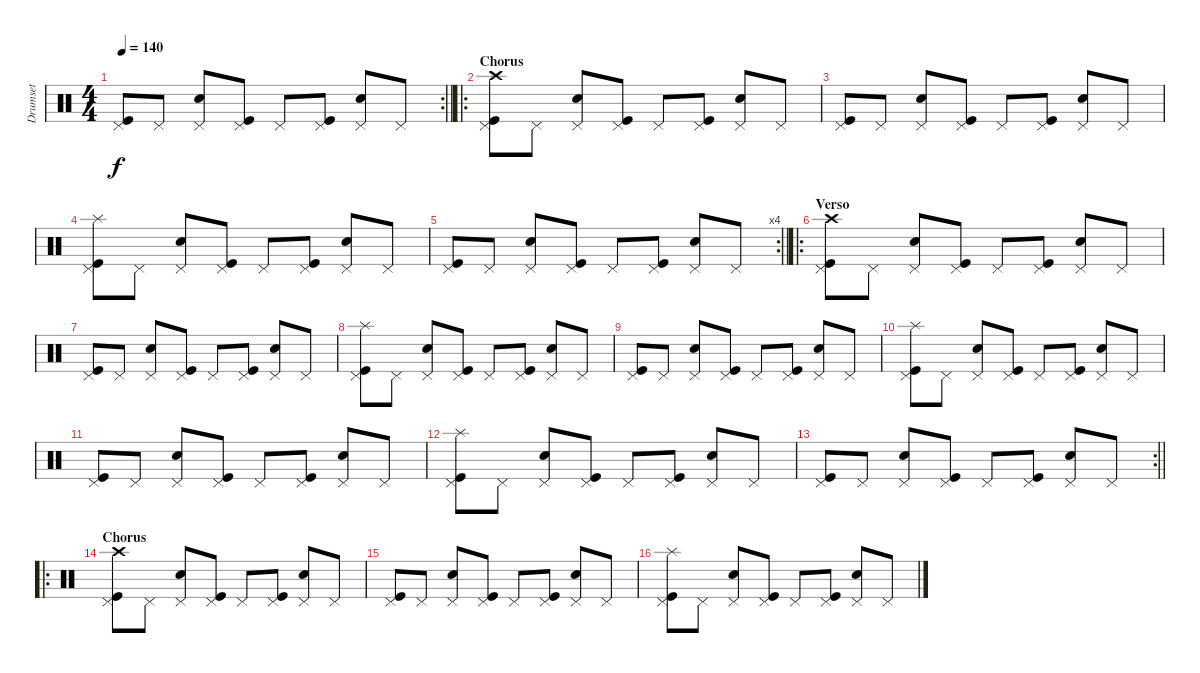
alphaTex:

\track ("Drumset" "Drumset") {instrument percussion}
\staff {score}
\articulation defaults
\rc 2
\ts (4 4)
\tempo 140
\clef neutral
\barLineRight lightlight
\ks c
("Pedal Hi-Hat (hit)" "Kick (hit)").8{dy f} "Pedal Hi-Hat (hit)".8 ("Pedal Hi-Hat (hit)" "Snare (hit) 2").8 ("Pedal Hi-Hat (hit)" "Kick (hit)").8 "Pedal Hi-Hat (hit)".8 ("Pedal Hi-Hat (hit)" "Kick (hit)").8 ("Pedal Hi-Hat (hit)" "Snare (hit) 2").8 "Pedal Hi-Hat (hit)".8 |
\ro
\section ("" "Chorus")
("Pedal Hi-Hat (hit)" "Kick (hit)" "Crash high (hit)").8 "Pedal Hi-Hat (hit)".8 ("Pedal Hi-Hat (hit)" "Snare (hit) 2").8 ("Pedal Hi-Hat (hit)" "Kick (hit)").8 "Pedal Hi-Hat (hit)".8 ("Pedal Hi-Hat (hit)" "Kick (hit)").8 ("Pedal Hi-Hat (hit)" "Snare (hit) 2").8 "Pedal Hi-Hat (hit)".8 |
("Pedal Hi-Hat (hit)" "Kick (hit)").8 "Pedal Hi-Hat (hit)".8 ("Pedal Hi-Hat (hit)" "Snare (hit) 2").8 ("Pedal Hi-Hat (hit)" "Kick (hit)").8 "Pedal Hi-Hat (hit)".8 ("Pedal Hi-Hat (hit)" "Kick (hit)").8 ("Pedal Hi-Hat (hit)" "Snare (hit) 2").8 "Pedal Hi-Hat (hit)".8 |
("Pedal Hi-Hat (hit)" "Kick (hit)" "Splash (hit)").8 "Pedal Hi-Hat (hit)".8 ("Pedal Hi-Hat (hit)" "Snare (hit) 2").8 ("Pedal Hi-Hat (hit)" "Kick (hit)").8 "Pedal Hi-Hat (hit)".8 ("Pedal Hi-Hat (hit)" "Kick (hit)").8 ("Pedal Hi-Hat (hit)" "Snare (hit) 2").8 "Pedal Hi-Hat (hit)".8 |
\rc 4
\barLineRight lightlight
("Pedal Hi-Hat (hit)" "Kick (hit)").8 "Pedal Hi-Hat (hit)".8 ("Pedal Hi-Hat (hit)" "Snare (hit) 2").8 ("Pedal Hi-Hat (hit)" "Kick (hit)").8 "Pedal Hi-Hat (hit)".8 ("Pedal Hi-Hat (hit)" "Kick (hit)").8 ("Pedal Hi-Hat (hit)" "Snare (hit) 2").8 "Pedal Hi-Hat (hit)".8 |
\ro
\section ("" "Verso")
("Pedal Hi-Hat (hit)" "Kick (hit)" "Crash high (hit)").8 "Pedal Hi-Hat (hit)".8 ("Pedal Hi-Hat (hit)" "Snare (hit) 2").8 ("Pedal Hi-Hat (hit)" "Kick (hit)").8 "Pedal Hi-Hat (hit)".8 ("Pedal Hi-Hat (hit)" "Kick (hit)").8 ("Pedal Hi-Hat (hit)" "Snare (hit) 2").8 "Pedal Hi-Hat (hit)".8 |
("Pedal Hi-Hat (hit)" "Kick (hit)").8 "Pedal Hi-Hat (hit)".8 ("Pedal Hi-Hat (hit)" "Snare (hit) 2").8 ("Pedal Hi-Hat (hit)" "Kick (hit)").8 "Pedal Hi-Hat (hit)".8 ("Pedal Hi-Hat (hit)" "Kick (hit)").8 ("Pedal Hi-Hat (hit)" "Snare (hit) 2").8 "Pedal Hi-Hat (hit)".8 |
("Pedal Hi-Hat (hit)" "Kick (hit)" "Splash (hit)").8 "Pedal Hi-Hat (hit)".8 ("Pedal Hi-Hat (hit)" "Snare (hit) 2").8 ("Pedal Hi-Hat (hit)" "Kick (hit)").8 "Pedal Hi-Hat (hit)".8 ("Pedal Hi-Hat (hit)" "Kick (hit)").8 ("Pedal Hi-Hat (hit)" "Snare (hit) 2").8 "Pedal Hi-Hat (hit)".8 |
("Pedal Hi-Hat (hit)" "Kick (hit)").8 "Pedal Hi-Hat (hit)".8 ("Pedal Hi-Hat (hit)" "Snare (hit) 2").8 ("Pedal Hi-Hat (hit)" "Kick (hit)").8 "Pedal Hi-Hat (hit)".8 ("Pedal Hi-Hat (hit)" "Kick (hit)").8 ("Pedal Hi-Hat (hit)" "Snare (hit) 2").8 "Pedal Hi-Hat (hit)".8 |
("Pedal Hi-Hat (hit)" "Kick (hit)" "Splash (hit)").8 "Pedal Hi-Hat (hit)".8 ("Pedal Hi-Hat (hit)" "Snare (hit) 2").8 ("Pedal Hi-Hat (hit)" "Kick (hit)").8 "Pedal Hi-Hat (hit)".8 ("Pedal Hi-Hat (hit)" "Kick (hit)").8 ("Pedal Hi-Hat (hit)" "Snare (hit) 2").8 "Pedal Hi-Hat (hit)".8 |
("Pedal Hi-Hat (hit)" "Kick (hit)").8 "Pedal Hi-Hat (hit)".8 ("Pedal Hi-Hat (hit)" "Snare (hit) 2").8 ("Pedal Hi-Hat (hit)" "Kick (hit)").8 "Pedal Hi-Hat (hit)".8 ("Pedal Hi-Hat (hit)" "Kick (hit)").8 ("Pedal Hi-Hat (hit)" "Snare (hit) 2").8 "Pedal Hi-Hat (hit)".8 |
("Pedal Hi-Hat (hit)" "Kick (hit)" "Splash (hit)").8 "Pedal Hi-Hat (hit)".8 ("Pedal Hi-Hat (hit)" "Snare (hit) 2").8 ("Pedal Hi-Hat (hit)" "Kick (hit)").8 "Pedal Hi-Hat (hit)".8 ("Pedal Hi-Hat (hit)" "Kick (hit)").8 ("Pedal Hi-Hat (hit)" "Snare (hit) 2").8 "Pedal Hi-Hat (hit)".8 |
\rc 2
\barLineRight lightlight
("Pedal Hi-Hat (hit)" "Kick (hit)").8 "Pedal Hi-Hat (hit)".8 ("Pedal Hi-Hat (hit)" "Snare (hit) 2").8 ("Pedal Hi-Hat (hit)" "Kick (hit)").8 "Pedal Hi-Hat (hit)".8 ("Pedal Hi-Hat (hit)" "Kick (hit)").8 ("Pedal Hi-Hat (hit)" "Snare (hit) 2").8 "Pedal Hi-Hat (hit)".8 |
\ro
\section ("" "Chorus")
("Pedal Hi-Hat (hit)" "Kick (hit)" "Crash high (hit)").8 "Pedal Hi-Hat (hit)".8 ("Pedal Hi-Hat (hit)" "Snare (hit) 2").8 ("Pedal Hi-Hat (hit)" "Kick (hit)").8 "Pedal Hi-Hat (hit)".8 ("Pedal Hi-Hat (hit)" "Kick (hit)").8 ("Pedal Hi-Hat (hit)" "Snare (hit) 2").8 "Pedal Hi-Hat (hit)".8 |
("Pedal Hi-Hat (hit)" "Kick (hit)").8 "Pedal Hi-Hat (hit)".8 ("Pedal Hi-Hat (hit)" "Snare (hit) 2").8 ("Pedal Hi-Hat (hit)" "Kick (hit)").8 "Pedal Hi-Hat (hit)".8 ("Pedal Hi-Hat (hit)" "Kick (hit)").8 ("Pedal Hi-Hat (hit)" "Snare (hit) 2").8 "Pedal Hi-Hat (hit)".8 |
("Pedal Hi-Hat (hit)" "Kick (hit)" "Splash (hit)").8 "Pedal Hi-Hat (hit)".8 ("Pedal Hi-Hat (hit)" "Snare (hit) 2").8 ("Pedal Hi-Hat (hit)" "Kick (hit)").8 "Pedal Hi-Hat (hit)".8 ("Pedal Hi-Hat (hit)" "Kick (hit)").8 ("Pedal Hi-Hat (hit)" "Snare (hit) 2").8 "Pedal Hi-Hat (hit)".8
